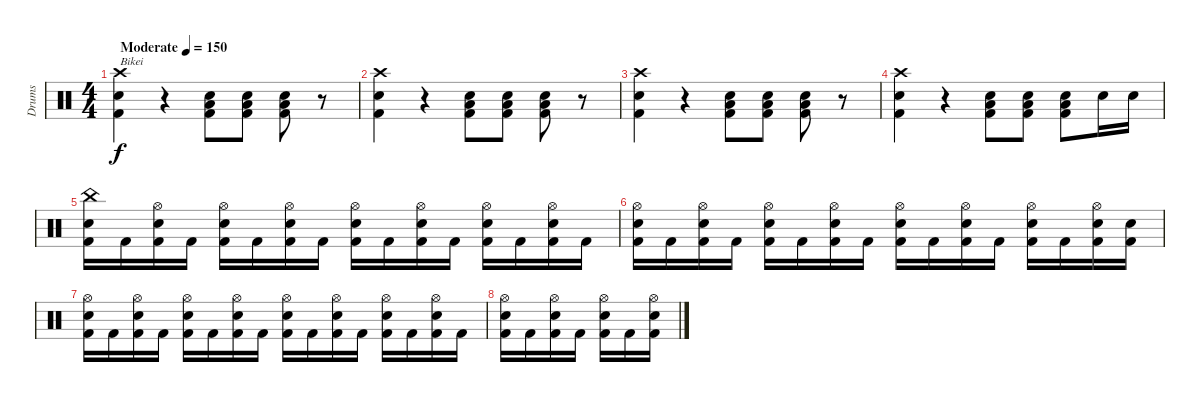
\track ("Drums" "Drums") {instrument percussion}
\staff {score}
\articulation defaults
\ts (4 4)
\tempo (150 "Moderate")
\clef neutral
\ks c
("Crash high (hit)" "Snare (hit) 2" "Kick (hit) 2").4{txt "Bikei" dy f} r.4 ("Snare (hit) 2" "Low Floor Tom (hit)" "Kick (hit) 2").8 ("Snare (hit) 2" "Low Floor Tom (hit)" "Kick (hit) 2").8 ("Snare (hit) 2" "Low Floor Tom (hit)" "Kick (hit) 2").8 r.8 |
("Crash high (hit)" "Snare (hit) 2" "Kick (hit) 2").4 r.4 ("Snare (hit) 2" "Low Floor Tom (hit)" "Kick (hit) 2").8 ("Snare (hit) 2" "Low Floor Tom (hit)" "Kick (hit) 2").8 ("Snare (hit) 2" "Low Floor Tom (hit)" "Kick (hit) 2").8 r.8 |
("Crash high (hit)" "Snare (hit) 2" "Kick (hit) 2").4 r.4 ("Snare (hit) 2" "Low Floor Tom (hit)" "Kick (hit) 2").8 ("Snare (hit) 2" "Low Floor Tom (hit)" "Kick (hit) 2").8 ("Snare (hit) 2" "Low Floor Tom (hit)" "Kick (hit) 2").8 r.8 |
("Crash high (hit)" "Snare (hit) 2" "Kick (hit) 2").4 r.4 ("Snare (hit) 2" "Low Floor Tom (hit)" "Kick (hit) 2").8 ("Snare (hit) 2" "Low Floor Tom (hit)" "Kick (hit) 2").8 ("Snare (hit) 2" "Low Floor Tom (hit)" "Kick (hit) 2").8 "Snare (hit) 2".16 "Snare (hit) 2".16 |
("China (hit)" "Snare (hit) 2" "Kick (hit) 2").16 "Kick (hit) 2".16 ("Hi-Hat (open)" "Snare (hit) 2" "Kick (hit) 2").16 "Kick (hit) 2".16 ("Hi-Hat (open)" "Snare (hit) 2" "Kick (hit) 2").16 "Kick (hit) 2".16 ("Hi-Hat (open)" "Snare (hit) 2" "Kick (hit) 2").16 "Kick (hit) 2".16 ("Hi-Hat (open)" "Snare (hit) 2" "Kick (hit) 2").16 "Kick (hit) 2".16 ("Hi-Hat (open)" "Snare (hit) 2" "Kick (hit) 2").16 "Kick (hit) 2".16 ("Hi-Hat (open)" "Snare (hit) 2" "Kick (hit) 2").16 "Kick (hit) 2".16 ("Hi-Hat (open)" "Snare (hit) 2" "Kick (hit) 2").16 "Kick (hit) 2".16 |
("Hi-Hat (open)" "Snare (hit) 2" "Kick (hit) 2").16 "Kick (hit) 2".16 ("Hi-Hat (open)" "Snare (hit) 2" "Kick (hit) 2").16 "Kick (hit) 2".16 ("Hi-Hat (open)" "Snare (hit) 2" "Kick (hit) 2").16 "Kick (hit) 2".16 ("Hi-Hat (open)" "Snare (hit) 2" "Kick (hit) 2").16 "Kick (hit) 2".16 ("Hi-Hat (open)" "Snare (hit) 2" "Kick (hit) 2").16 "Kick (hit) 2".16 ("Hi-Hat (open)" "Snare (hit) 2" "Kick (hit) 2").16 "Kick (hit) 2".16 ("Hi-Hat (open)" "Snare (hit) 2" "Kick (hit) 2").16 "Kick (hit) 2".16 ("Hi-Hat (open)" "Snare (hit) 2" "Kick (hit) 2").16 ("Snare (hit) 2" "Kick (hit) 2").16 |
("Hi-Hat (open)" "Snare (hit) 2" "Kick (hit) 2").16 "Kick (hit) 2".16 ("Hi-Hat (open)" "Snare (hit) 2" "Kick (hit) 2").16 "Kick (hit) 2".16 ("Hi-Hat (open)" "Snare (hit) 2" "Kick (hit) 2").16 "Kick (hit) 2".16 ("Hi-Hat (open)" "Snare (hit) 2" "Kick (hit) 2").16 "Kick (hit) 2".16 ("Hi-Hat (open)" "Snare (hit) 2" "Kick (hit) 2").16 "Kick (hit) 2".16 ("Hi-Hat (open)" "Snare (hit) 2" "Kick (hit) 2").16 "Kick (hit) 2".16 ("Hi-Hat (open)" "Snare (hit) 2" "Kick (hit) 2").16 "Kick (hit) 2".16 ("Hi-Hat (open)" "Snare (hit) 2" "Kick (hit) 2").16 "Kick (hit) 2".16 |
("Hi-Hat (open)" "Snare (hit) 2" "Kick (hit) 2").16 "Kick (hit) 2".16 ("Hi-Hat (open)" "Snare (hit) 2" "Kick (hit) 2").16 "Kick (hit) 2".16 ("Hi-Hat (open)" "Snare (hit) 2" "Kick (hit) 2").16 "Kick (hit) 2".16 ("Hi-Hat (open)" "Snare (hit) 2" "Kick (hit) 2").16
